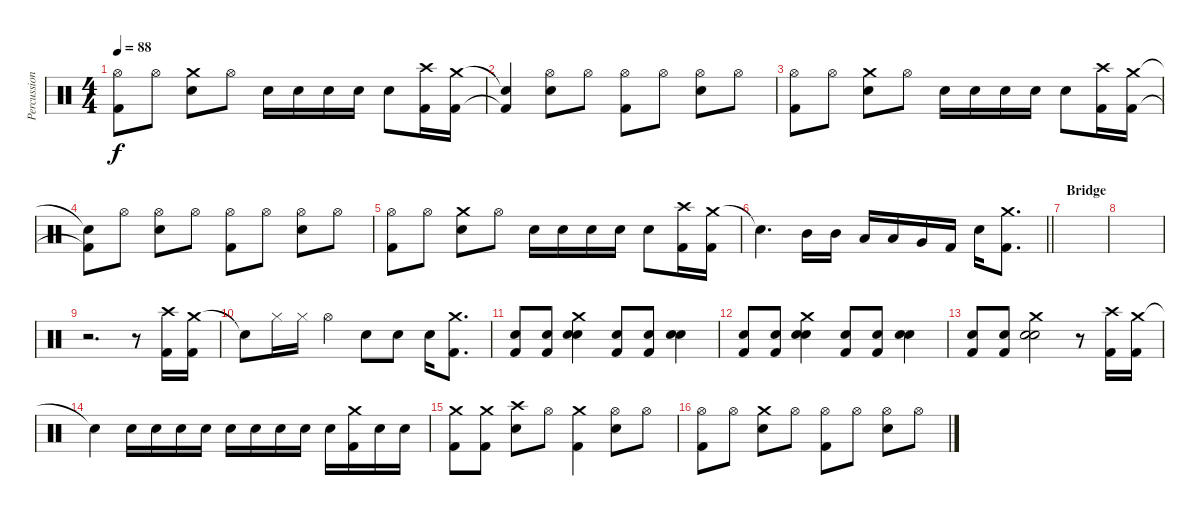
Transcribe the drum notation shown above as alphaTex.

\track ("Percussions" "Percussion") {instrument percussion}
\staff {score}
\articulation defaults
\ts (4 4)
\tempo 88
\clef neutral
\ks c
("Hi-Hat (open)" "Kick (hit) 2").8{dy f} "Hi-Hat (open)".8 ("Crash medium (hit)" "Snare (hit) 2").8 "Hi-Hat (open)".8 "Snare (hit) 2".16 "Snare (hit) 2".16 "Snare (hit) 2".16 "Snare (hit) 2".16 "Snare (hit) 2".8 ("Crash high (hit)" "Kick (hit) 2").16 ("Crash medium (hit)" "Kick (hit) 2").16 |
("Snare (hit)"{t} "Kick (hit) 2"{t}).4 ("Hi-Hat (open)" "Snare (hit) 2").8 "Hi-Hat (open)".8 ("Hi-Hat (open)" "Kick (hit) 2").8 "Hi-Hat (open)".8 ("Hi-Hat (open)" "Snare (hit) 2").8 "Hi-Hat (open)".8 |
("Hi-Hat (open)" "Kick (hit) 2").8 "Hi-Hat (open)".8 ("Crash medium (hit)" "Snare (hit) 2").8 "Hi-Hat (open)".8 "Snare (hit) 2".16 "Snare (hit) 2".16 "Snare (hit) 2".16 "Snare (hit) 2".16 "Snare (hit) 2".8 ("Crash high (hit)" "Kick (hit) 2").16 ("Crash medium (hit)" "Kick (hit) 2").16 |
("Snare (hit)"{t} "Kick (hit) 2"{t}).8 "Hi-Hat (open)".8 ("Hi-Hat (open)" "Snare (hit) 2").8 "Hi-Hat (open)".8 ("Hi-Hat (open)" "Kick (hit) 2").8 "Hi-Hat (open)".8 ("Hi-Hat (open)" "Snare (hit) 2").8 "Hi-Hat (open)".8 |
("Hi-Hat (open)" "Kick (hit) 2").8 "Hi-Hat (open)".8 ("Crash medium (hit)" "Snare (hit) 2").8 "Hi-Hat (open)".8 "Snare (hit) 2".16 "Snare (hit) 2".16 "Snare (hit) 2".16 "Snare (hit) 2".16 "Snare (hit) 2".8 ("Crash high (hit)" "Kick (hit) 2").16 ("Crash medium (hit)" "Kick (hit) 2").16 |
\barLineRight lightlight "Snare (hit)"{t}.4{d} "Mid Tom (hit)".16 "Mid Tom (hit)".16 "Low Tom (hit)".16 "Low Tom (hit)".16 "Very Low Tom (hit)".16 "Kick (hit) 2".16 "Snare (hit) 2".16
("Crash medium (hit)" "Kick (hit) 2").8{d} |
\section ("" "Bridge")
|
|
r.2{d} r.8 ("Crash high (hit)" "Kick (hit) 2").16 ("Crash medium (hit)" "Kick (hit) 2").16 |
"Snare (hit)"{t}.8 "Hi-Hat (closed)".16 "Hi-Hat (closed)".16 "Hi-Hat (open)".4 "Snare (hit) 2".8 "Snare (hit) 2".8 "Snare (hit) 2".16 ("Crash medium (hit)" "Kick (hit) 2").8{d} |
("Hand Clap (hit)" "Kick (hit) 2").8 ("Hand Clap (hit)" "Kick (hit) 2").8 ("Crash medium (hit)" "Snare (hit) 2" "Hand Clap (hit)").4 ("Hand Clap (hit)" "Kick (hit) 2").8 ("Hand Clap (hit)" "Kick (hit) 2").8 ("Snare (hit) 2" "Hand Clap (hit)").4 |
("Hand Clap (hit)" "Kick (hit) 2").8 ("Hand Clap (hit)" "Kick (hit) 2").8 ("Crash medium (hit)" "Snare (hit) 2" "Hand Clap (hit)").4 ("Hand Clap (hit)" "Kick (hit) 2").8 ("Hand Clap (hit)" "Kick (hit) 2").8 ("Snare (hit) 2" "Hand Clap (hit)").4 |
("Hand Clap (hit)" "Kick (hit) 2").8 ("Hand Clap (hit)" "Kick (hit) 2").8 ("Crash medium (hit)" "Snare (hit) 2" "Hand Clap (hit)").2 r.8 ("Crash high (hit)" "Kick (hit) 2").16 ("Crash medium (hit)" "Kick (hit) 2").16 |
"Snare (hit)"{t}.4 "Snare (hit) 2".16 "Snare (hit) 2".16 "Snare (hit) 2".16 "Snare (hit) 2".16 "Snare (hit) 2".16 "Snare (hit) 2".16 "Snare (hit) 2".16 "Snare (hit) 2".16 "Snare (hit) 2".16 ("Crash medium (hit)" "Kick (hit) 2").16 "Snare (hit) 2".16 "Snare (hit) 2".16 |
("Crash medium (hit)" "Kick (hit) 2").8 ("Crash medium (hit)" "Kick (hit) 2").8 ("Crash high (hit)" "Snare (hit) 2").8 "Hi-Hat (open)".8 ("Crash medium (hit)" "Kick (hit) 2").4 ("Hi-Hat (open)" "Snare (hit) 2").8 "Hi-Hat (open)".8 |
("Hi-Hat (open)" "Kick (hit) 2").8 "Hi-Hat (open)".8 ("Crash medium (hit)" "Snare (hit) 2").8 "Hi-Hat (open)".8 ("Hi-Hat (open)" "Kick (hit) 2").8 "Hi-Hat (open)".8 ("Hi-Hat (open)" "Snare (hit) 2").8 "Hi-Hat (open)".8
